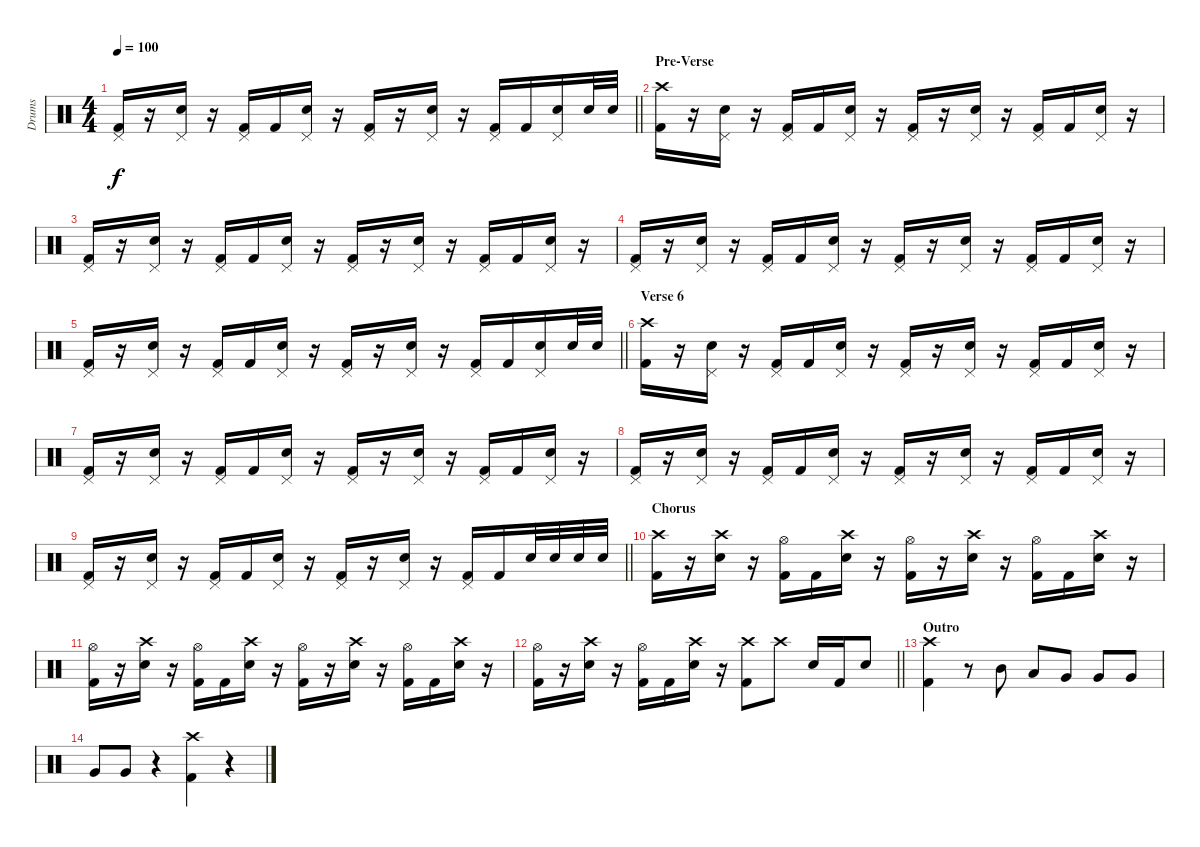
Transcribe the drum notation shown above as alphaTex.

\track ("Drums" "Drums") {instrument percussion}
\staff {score}
\articulation defaults
\ts (4 4)
\tempo 100
\clef neutral
\barLineRight lightlight
\ks c
("Pedal Hi-Hat (hit)" "Kick (hit) 2").16{dy f} r.16 ("Pedal Hi-Hat (hit)" "Snare (hit) 2").16 r.16 ("Pedal Hi-Hat (hit)" "Kick (hit) 2").16 "Kick (hit) 2".16 ("Pedal Hi-Hat (hit)" "Snare (hit) 2").16 r.16 ("Pedal Hi-Hat (hit)" "Kick (hit) 2").16 r.16 ("Pedal Hi-Hat (hit)" "Snare (hit) 2").16 r.16 ("Pedal Hi-Hat (hit)" "Kick (hit) 2").16 "Kick (hit) 2".16 ("Pedal Hi-Hat (hit)" "Snare (hit) 2").16 "Snare (hit) 2".32 "Snare (hit) 2".32 |
\section ("" "Pre-Verse")
("Crash high (hit)" "Kick (hit) 2").16 r.16 ("Pedal Hi-Hat (hit)" "Snare (hit) 2").16 r.16 ("Pedal Hi-Hat (hit)" "Kick (hit) 2").16 "Kick (hit) 2".16 ("Pedal Hi-Hat (hit)" "Snare (hit) 2").16 r.16 ("Pedal Hi-Hat (hit)" "Kick (hit) 2").16 r.16 ("Pedal Hi-Hat (hit)" "Snare (hit) 2").16 r.16 ("Pedal Hi-Hat (hit)" "Kick (hit) 2").16 "Kick (hit) 2".16 ("Pedal Hi-Hat (hit)" "Snare (hit) 2").16 r.16 |
("Pedal Hi-Hat (hit)" "Kick (hit) 2").16 r.16 ("Pedal Hi-Hat (hit)" "Snare (hit) 2").16 r.16 ("Pedal Hi-Hat (hit)" "Kick (hit) 2").16 "Kick (hit) 2".16 ("Pedal Hi-Hat (hit)" "Snare (hit) 2").16 r.16 ("Pedal Hi-Hat (hit)" "Kick (hit) 2").16 r.16 ("Pedal Hi-Hat (hit)" "Snare (hit) 2").16 r.16 ("Pedal Hi-Hat (hit)" "Kick (hit) 2").16 "Kick (hit) 2".16 ("Pedal Hi-Hat (hit)" "Snare (hit) 2").16 r.16 |
("Pedal Hi-Hat (hit)" "Kick (hit) 2").16 r.16 ("Pedal Hi-Hat (hit)" "Snare (hit) 2").16 r.16 ("Pedal Hi-Hat (hit)" "Kick (hit) 2").16 "Kick (hit) 2".16 ("Pedal Hi-Hat (hit)" "Snare (hit) 2").16 r.16 ("Pedal Hi-Hat (hit)" "Kick (hit) 2").16 r.16 ("Pedal Hi-Hat (hit)" "Snare (hit) 2").16 r.16 ("Pedal Hi-Hat (hit)" "Kick (hit) 2").16 "Kick (hit) 2".16 ("Pedal Hi-Hat (hit)" "Snare (hit) 2").16 r.16 |
\barLineRight lightlight
("Pedal Hi-Hat (hit)" "Kick (hit) 2").16 r.16 ("Pedal Hi-Hat (hit)" "Snare (hit) 2").16 r.16 ("Pedal Hi-Hat (hit)" "Kick (hit) 2").16 "Kick (hit) 2".16 ("Pedal Hi-Hat (hit)" "Snare (hit) 2").16 r.16 ("Pedal Hi-Hat (hit)" "Kick (hit) 2").16 r.16 ("Pedal Hi-Hat (hit)" "Snare (hit) 2").16 r.16 ("Pedal Hi-Hat (hit)" "Kick (hit) 2").16 "Kick (hit) 2".16 ("Pedal Hi-Hat (hit)" "Snare (hit) 2").16 "Snare (hit) 2".32 "Snare (hit) 2".32 |
\section ("" "Verse 6")
("Crash high (hit)" "Kick (hit) 2").16 r.16 ("Pedal Hi-Hat (hit)" "Snare (hit) 2").16 r.16 ("Pedal Hi-Hat (hit)" "Kick (hit) 2").16 "Kick (hit) 2".16 ("Pedal Hi-Hat (hit)" "Snare (hit) 2").16 r.16 ("Pedal Hi-Hat (hit)" "Kick (hit) 2").16 r.16 ("Pedal Hi-Hat (hit)" "Snare (hit) 2").16 r.16 ("Pedal Hi-Hat (hit)" "Kick (hit) 2").16 "Kick (hit) 2".16 ("Pedal Hi-Hat (hit)" "Snare (hit) 2").16 r.16 |
("Pedal Hi-Hat (hit)" "Kick (hit) 2").16 r.16 ("Pedal Hi-Hat (hit)" "Snare (hit) 2").16 r.16 ("Pedal Hi-Hat (hit)" "Kick (hit) 2").16 "Kick (hit) 2".16 ("Pedal Hi-Hat (hit)" "Snare (hit) 2").16 r.16 ("Pedal Hi-Hat (hit)" "Kick (hit) 2").16 r.16 ("Pedal Hi-Hat (hit)" "Snare (hit) 2").16 r.16 ("Pedal Hi-Hat (hit)" "Kick (hit) 2").16 "Kick (hit) 2".16 ("Pedal Hi-Hat (hit)" "Snare (hit) 2").16 r.16 |
("Pedal Hi-Hat (hit)" "Kick (hit) 2").16 r.16 ("Pedal Hi-Hat (hit)" "Snare (hit) 2").16 r.16 ("Pedal Hi-Hat (hit)" "Kick (hit) 2").16 "Kick (hit) 2".16 ("Pedal Hi-Hat (hit)" "Snare (hit) 2").16 r.16 ("Pedal Hi-Hat (hit)" "Kick (hit) 2").16 r.16 ("Pedal Hi-Hat (hit)" "Snare (hit) 2").16 r.16 ("Pedal Hi-Hat (hit)" "Kick (hit) 2").16 "Kick (hit) 2".16 ("Pedal Hi-Hat (hit)" "Snare (hit) 2").16 r.16 |
\barLineRight lightlight
("Pedal Hi-Hat (hit)" "Kick (hit) 2").16 r.16 ("Pedal Hi-Hat (hit)" "Snare (hit) 2").16 r.16 ("Pedal Hi-Hat (hit)" "Kick (hit) 2").16 "Kick (hit) 2".16 ("Pedal Hi-Hat (hit)" "Snare (hit) 2").16 r.16 ("Pedal Hi-Hat (hit)" "Kick (hit) 2").16 r.16 ("Pedal Hi-Hat (hit)" "Snare (hit) 2").16 r.16 ("Pedal Hi-Hat (hit)" "Kick (hit) 2").16 "Kick (hit) 2".16 "Snare (hit) 2".32 "Snare (hit) 2".32 "Snare (hit) 2".32 "Snare (hit) 2".32 |
\section ("" "Chorus")
("Crash high (hit)" "Kick (hit) 2").16 r.16 ("Crash high (hit)" "Snare (hit) 2").16 r.16 ("Hi-Hat (open)" "Kick (hit) 2").16 "Kick (hit) 2".16 ("Crash high (hit)" "Snare (hit) 2").16 r.16 ("Hi-Hat (open)" "Kick (hit) 2").16 r.16 ("Crash high (hit)" "Snare (hit) 2").16 r.16 ("Hi-Hat (open)" "Kick (hit) 2").16 "Kick (hit) 2".16 ("Crash high (hit)" "Snare (hit) 2").16 r.16 |
("Hi-Hat (open)" "Kick (hit) 2").16 r.16 ("Crash high (hit)" "Snare (hit) 2").16 r.16 ("Hi-Hat (open)" "Kick (hit) 2").16 "Kick (hit) 2".16 ("Crash high (hit)" "Snare (hit) 2").16 r.16 ("Hi-Hat (open)" "Kick (hit) 2").16 r.16 ("Crash high (hit)" "Snare (hit) 2").16 r.16 ("Hi-Hat (open)" "Kick (hit) 2").16 "Kick (hit) 2".16 ("Crash high (hit)" "Snare (hit) 2").16 r.16 |
\barLineRight lightlight
("Hi-Hat (open)" "Kick (hit) 2").16 r.16 ("Crash high (hit)" "Snare (hit) 2").16 r.16 ("Hi-Hat (open)" "Kick (hit) 2").16 "Kick (hit) 2".16 ("Crash high (hit)" "Snare (hit) 2").16 r.16 ("Crash high (hit)" "Kick (hit) 2").8 "Crash high (hit)".8 "Snare (hit) 2".16 "Kick (hit) 2".16 "Snare (hit) 2".8 |
\section ("" "Outro")
("Crash high (hit)" "Kick (hit) 2").4 r.8 "Mid Tom (hit)".8 "Low Tom (hit)".8 "Very Low Tom (hit)".8 "Very Low Tom (hit)".8 "Very Low Tom (hit)".8 |
"Very Low Tom (hit)".8 "Very Low Tom (hit)".8 r.4 ("Crash high (hit)" "Kick (hit) 2").4 r.4
